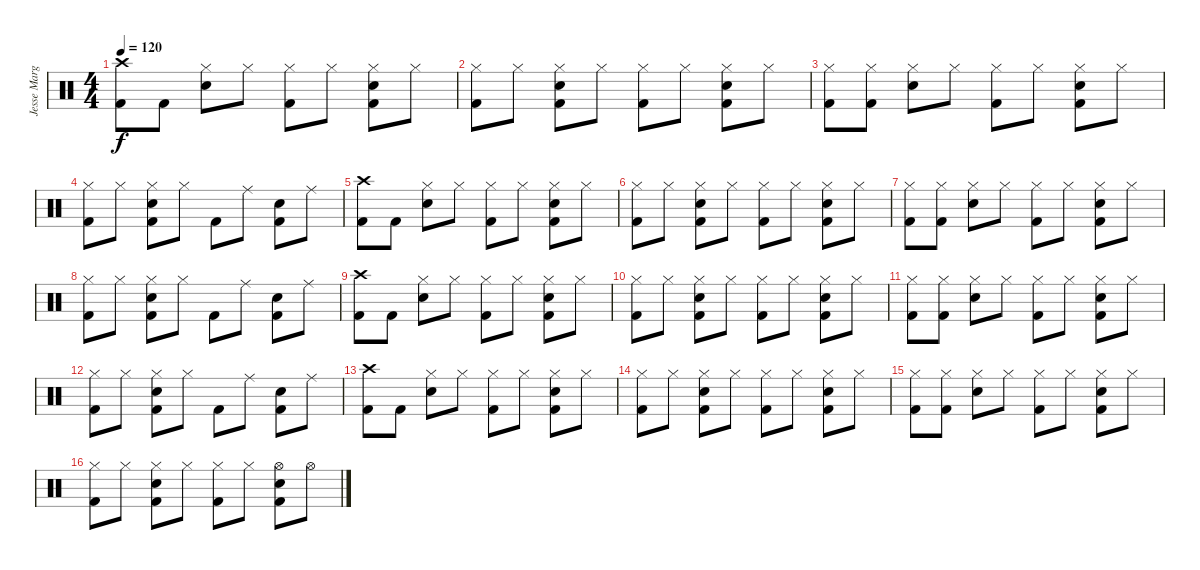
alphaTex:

\track ("Jesse Margera" "Jesse Marg") {instrument percussion}
\staff {score}
\articulation defaults
\ts (4 4)
\tempo 120
\clef neutral
\ks c
("Crash high (hit)" "Kick (hit) 2").8{dy f} "Kick (hit) 2".8 ("Hi-Hat (closed)" "Electric Snare (hit)").8 "Hi-Hat (closed)".8 ("Hi-Hat (closed)" "Kick (hit) 2").8 "Hi-Hat (closed)".8 ("Hi-Hat (closed)" "Electric Snare (hit)" "Kick (hit) 2").8 "Hi-Hat (closed)".8 |
("Hi-Hat (closed)" "Kick (hit) 2").8 "Hi-Hat (closed)".8 ("Hi-Hat (closed)" "Electric Snare (hit)" "Kick (hit) 2").8 "Hi-Hat (closed)".8 ("Hi-Hat (closed)" "Kick (hit) 2").8 "Hi-Hat (closed)".8 ("Hi-Hat (closed)" "Electric Snare (hit)" "Kick (hit) 2").8 "Hi-Hat (closed)".8 |
("Hi-Hat (closed)" "Kick (hit) 2").8 ("Hi-Hat (closed)" "Kick (hit) 2").8 ("Hi-Hat (closed)" "Electric Snare (hit)").8 "Hi-Hat (closed)".8 ("Hi-Hat (closed)" "Kick (hit) 2").8 "Hi-Hat (closed)".8 ("Hi-Hat (closed)" "Electric Snare (hit)" "Kick (hit) 2").8 "Hi-Hat (closed)".8 |
("Hi-Hat (closed)" "Kick (hit) 2").8 "Hi-Hat (closed)".8 ("Hi-Hat (closed)" "Electric Snare (hit)" "Kick (hit) 2").8 "Hi-Hat (closed)".8 "Kick (hit) 2".8 "Ride (middle)".8 ("Electric Snare (hit)" "Kick (hit) 2").8 "Ride (middle)".8 |
("Crash high (hit)" "Kick (hit) 2").8 "Kick (hit) 2".8 ("Hi-Hat (closed)" "Electric Snare (hit)").8 "Hi-Hat (closed)".8 ("Hi-Hat (closed)" "Kick (hit) 2").8 "Hi-Hat (closed)".8 ("Hi-Hat (closed)" "Electric Snare (hit)" "Kick (hit) 2").8 "Hi-Hat (closed)".8 |
("Hi-Hat (closed)" "Kick (hit) 2").8 "Hi-Hat (closed)".8 ("Hi-Hat (closed)" "Electric Snare (hit)" "Kick (hit) 2").8 "Hi-Hat (closed)".8 ("Hi-Hat (closed)" "Kick (hit) 2").8 "Hi-Hat (closed)".8 ("Hi-Hat (closed)" "Electric Snare (hit)" "Kick (hit) 2").8 "Hi-Hat (closed)".8 |
("Hi-Hat (closed)" "Kick (hit) 2").8 ("Hi-Hat (closed)" "Kick (hit) 2").8 ("Hi-Hat (closed)" "Electric Snare (hit)").8 "Hi-Hat (closed)".8 ("Hi-Hat (closed)" "Kick (hit) 2").8 "Hi-Hat (closed)".8 ("Hi-Hat (closed)" "Electric Snare (hit)" "Kick (hit) 2").8 "Hi-Hat (closed)".8 |
("Hi-Hat (closed)" "Kick (hit) 2").8 "Hi-Hat (closed)".8 ("Hi-Hat (closed)" "Electric Snare (hit)" "Kick (hit) 2").8 "Hi-Hat (closed)".8 "Kick (hit) 2".8 "Ride (middle)".8 ("Electric Snare (hit)" "Kick (hit) 2").8 "Ride (middle)".8 |
("Crash high (hit)" "Kick (hit) 2").8 "Kick (hit) 2".8 ("Hi-Hat (closed)" "Electric Snare (hit)").8 "Hi-Hat (closed)".8 ("Hi-Hat (closed)" "Kick (hit) 2").8 "Hi-Hat (closed)".8 ("Hi-Hat (closed)" "Electric Snare (hit)" "Kick (hit) 2").8 "Hi-Hat (closed)".8 |
("Hi-Hat (closed)" "Kick (hit) 2").8 "Hi-Hat (closed)".8 ("Hi-Hat (closed)" "Electric Snare (hit)" "Kick (hit) 2").8 "Hi-Hat (closed)".8 ("Hi-Hat (closed)" "Kick (hit) 2").8 "Hi-Hat (closed)".8 ("Hi-Hat (closed)" "Electric Snare (hit)" "Kick (hit) 2").8 "Hi-Hat (closed)".8 |
("Hi-Hat (closed)" "Kick (hit) 2").8 ("Hi-Hat (closed)" "Kick (hit) 2").8 ("Hi-Hat (closed)" "Electric Snare (hit)").8 "Hi-Hat (closed)".8 ("Hi-Hat (closed)" "Kick (hit) 2").8 "Hi-Hat (closed)".8 ("Hi-Hat (closed)" "Electric Snare (hit)" "Kick (hit) 2").8 "Hi-Hat (closed)".8 |
("Hi-Hat (closed)" "Kick (hit) 2").8 "Hi-Hat (closed)".8 ("Hi-Hat (closed)" "Electric Snare (hit)" "Kick (hit) 2").8 "Hi-Hat (closed)".8 "Kick (hit) 2".8 "Ride (middle)".8 ("Electric Snare (hit)" "Kick (hit) 2").8 "Ride (middle)".8 |
("Crash high (hit)" "Kick (hit) 2").8 "Kick (hit) 2".8 ("Hi-Hat (closed)" "Electric Snare (hit)").8 "Hi-Hat (closed)".8 ("Hi-Hat (closed)" "Kick (hit) 2").8 "Hi-Hat (closed)".8 ("Hi-Hat (closed)" "Electric Snare (hit)" "Kick (hit) 2").8 "Hi-Hat (closed)".8 |
("Hi-Hat (closed)" "Kick (hit) 2").8 "Hi-Hat (closed)".8 ("Hi-Hat (closed)" "Electric Snare (hit)" "Kick (hit) 2").8 "Hi-Hat (closed)".8 ("Hi-Hat (closed)" "Kick (hit) 2").8 "Hi-Hat (closed)".8 ("Hi-Hat (closed)" "Electric Snare (hit)" "Kick (hit) 2").8 "Hi-Hat (closed)".8 |
("Hi-Hat (closed)" "Kick (hit) 2").8 ("Hi-Hat (closed)" "Kick (hit) 2").8 ("Hi-Hat (closed)" "Electric Snare (hit)").8 "Hi-Hat (closed)".8 ("Hi-Hat (closed)" "Kick (hit) 2").8 "Hi-Hat (closed)".8 ("Hi-Hat (closed)" "Electric Snare (hit)" "Kick (hit) 2").8 "Hi-Hat (closed)".8 |
("Hi-Hat (closed)" "Kick (hit) 2").8 "Hi-Hat (closed)".8 ("Hi-Hat (closed)" "Electric Snare (hit)" "Kick (hit) 2").8 "Hi-Hat (closed)".8 ("Hi-Hat (closed)" "Kick (hit) 2").8 "Hi-Hat (closed)".8 ("Hi-Hat (open)" "Electric Snare (hit)" "Kick (hit) 2").8 "Hi-Hat (open)".8
